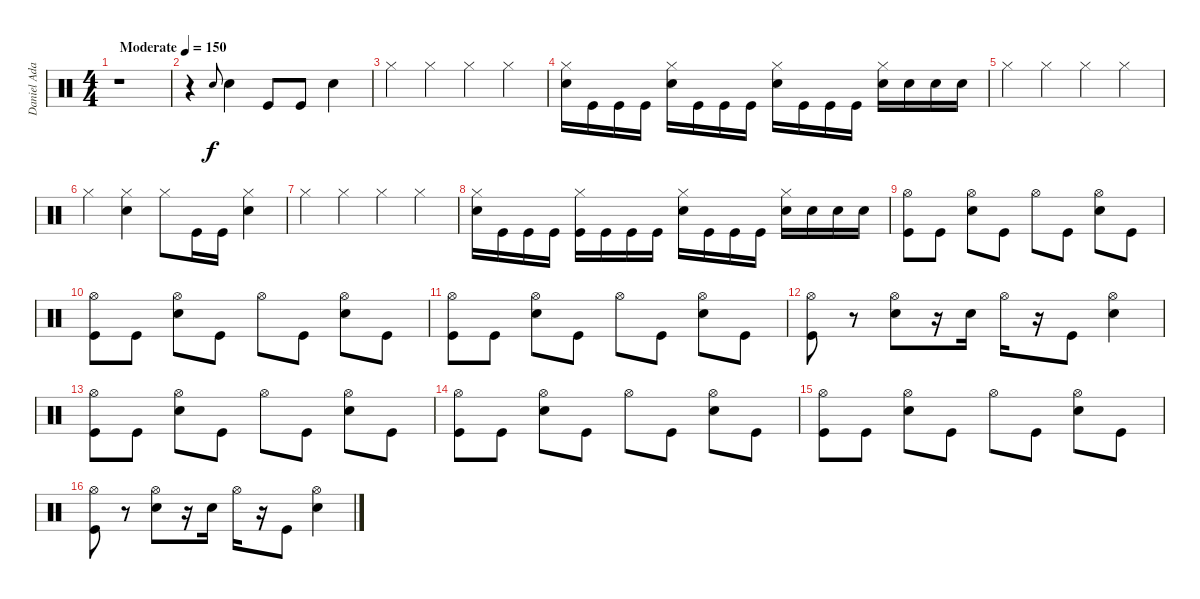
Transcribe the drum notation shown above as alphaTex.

\track ("Daniel Adair" "Daniel Ada") {instrument percussion}
\staff {score}
\articulation defaults
\ts (4 4)
\tempo (150 "Moderate")
\clef neutral
\ks c
r.1{dy f} |
r.4 "Electric Snare (hit)".8{gr onbeat} "Electric Snare (hit)".4 "Kick (hit)".8 "Kick (hit)".8 "Electric Snare (hit)".4 |
"Hi-Hat (closed)".4 "Hi-Hat (closed)".4 "Hi-Hat (closed)".4 "Hi-Hat (closed)".4 |
("Electric Snare (hit)" "Hi-Hat (closed)").16 "Kick (hit)".16 "Kick (hit)".16 "Kick (hit)".16 ("Electric Snare (hit)" "Hi-Hat (closed)").16 "Kick (hit)".16 "Kick (hit)".16 "Kick (hit)".16 ("Electric Snare (hit)" "Hi-Hat (closed)").16 "Kick (hit)".16 "Kick (hit)".16 "Kick (hit)".16 ("Electric Snare (hit)" "Hi-Hat (closed)").16 "Electric Snare (hit)".16 "Electric Snare (hit)".16 "Electric Snare (hit)".16 |
"Hi-Hat (closed)".4 "Hi-Hat (closed)".4 "Hi-Hat (closed)".4 "Hi-Hat (closed)".4 |
"Hi-Hat (closed)".4 ("Electric Snare (hit)" "Hi-Hat (closed)").4 "Hi-Hat (closed)".8 "Kick (hit)".16 "Kick (hit)".16 ("Electric Snare (hit)" "Hi-Hat (closed)").4 |
"Hi-Hat (closed)".4 "Hi-Hat (closed)".4 "Hi-Hat (closed)".4 "Hi-Hat (closed)".4 |
("Electric Snare (hit)" "Hi-Hat (closed)").16 "Kick (hit)".16 "Kick (hit)".16 "Kick (hit)".16 ("Kick (hit)" "Hi-Hat (closed)").16 "Kick (hit)".16 "Kick (hit)".16 "Kick (hit)".16 ("Electric Snare (hit)" "Hi-Hat (closed)").16 "Kick (hit)".16 "Kick (hit)".16 "Kick (hit)".16 ("Electric Snare (hit)" "Hi-Hat (closed)").16 "Electric Snare (hit)".16 "Electric Snare (hit)".16 "Electric Snare (hit)".16 |
("Kick (hit)" "Hi-Hat (open)").8 "Kick (hit)".8 ("Electric Snare (hit)" "Hi-Hat (open)").8 "Kick (hit)".8 "Hi-Hat (open)".8 "Kick (hit)".8 ("Electric Snare (hit)" "Hi-Hat (open)").8 "Kick (hit)".8 |
("Kick (hit)" "Hi-Hat (open)").8 "Kick (hit)".8 ("Electric Snare (hit)" "Hi-Hat (open)").8 "Kick (hit)".8 "Hi-Hat (open)".8 "Kick (hit)".8 ("Electric Snare (hit)" "Hi-Hat (open)").8 "Kick (hit)".8 |
("Kick (hit)" "Hi-Hat (open)").8 "Kick (hit)".8 ("Electric Snare (hit)" "Hi-Hat (open)").8 "Kick (hit)".8 "Hi-Hat (open)".8 "Kick (hit)".8 ("Electric Snare (hit)" "Hi-Hat (open)").8 "Kick (hit)".8 |
("Kick (hit)" "Hi-Hat (open)").8 r.8 ("Electric Snare (hit)" "Hi-Hat (open)").8 r.16 "Electric Snare (hit)".16 "Hi-Hat (open)".16 r.16 "Kick (hit)".8 ("Electric Snare (hit)" "Hi-Hat (open)").4 |
("Kick (hit)" "Hi-Hat (open)").8 "Kick (hit)".8 ("Electric Snare (hit)" "Hi-Hat (open)").8 "Kick (hit)".8 "Hi-Hat (open)".8 "Kick (hit)".8 ("Electric Snare (hit)" "Hi-Hat (open)").8 "Kick (hit)".8 |
("Kick (hit)" "Hi-Hat (open)").8 "Kick (hit)".8 ("Electric Snare (hit)" "Hi-Hat (open)").8 "Kick (hit)".8 "Hi-Hat (open)".8 "Kick (hit)".8 ("Electric Snare (hit)" "Hi-Hat (open)").8 "Kick (hit)".8 |
("Kick (hit)" "Hi-Hat (open)").8 "Kick (hit)".8 ("Electric Snare (hit)" "Hi-Hat (open)").8 "Kick (hit)".8 "Hi-Hat (open)".8 "Kick (hit)".8 ("Electric Snare (hit)" "Hi-Hat (open)").8 "Kick (hit)".8 |
("Kick (hit)" "Hi-Hat (open)").8 r.8 ("Electric Snare (hit)" "Hi-Hat (open)").8 r.16 "Electric Snare (hit)".16 "Hi-Hat (open)".16 r.16 "Kick (hit)".8 ("Electric Snare (hit)" "Hi-Hat (open)").4
